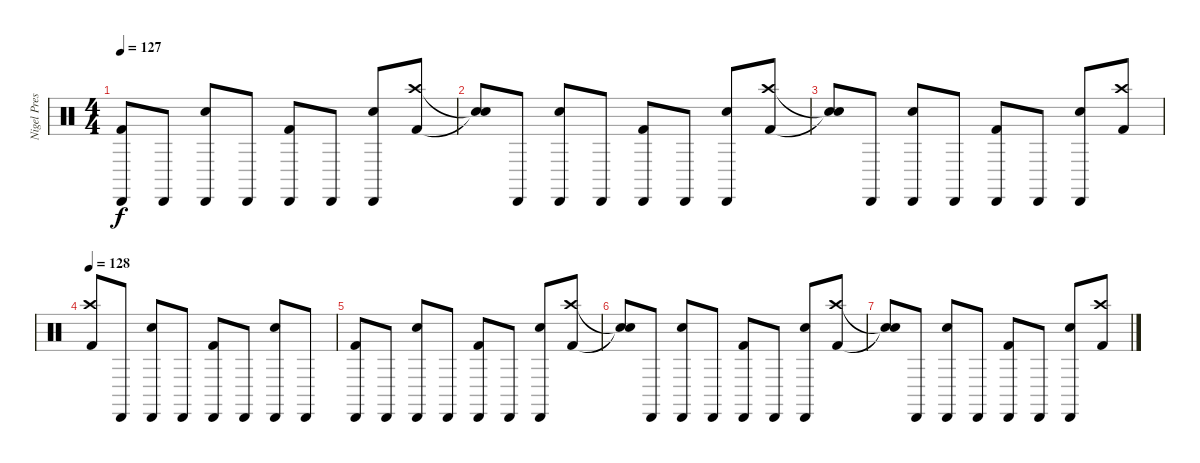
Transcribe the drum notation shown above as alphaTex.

\track ("Nigel Preston" "Nigel Pres") {instrument percussion}
\staff {score}
\articulation defaults
\ts (4 4)
\tempo 127
\clef neutral
\ks c
("Kick (hit) 2" "Cabasa (hit)").8{dy f} "Cabasa (hit)".8 ("Snare (hit) 2" "Cabasa (hit)").8 "Cabasa (hit)".8 ("Kick (hit) 2" "Cabasa (hit)").8 "Cabasa (hit)".8 ("Snare (hit) 2" "Cabasa (hit)").8 ("Kick (hit) 2" "Crash high (hit)").8 |
("Snare (hit)"{t} "Snare (hit)"{t}).8 "Cabasa (hit)".8 ("Snare (hit) 2" "Cabasa (hit)").8 "Cabasa (hit)".8 ("Kick (hit) 2" "Cabasa (hit)").8 "Cabasa (hit)".8 ("Snare (hit) 2" "Cabasa (hit)").8 ("Kick (hit) 2" "Crash high (hit)").8 |
("Snare (hit)"{t} "Snare (hit)"{t}).8 "Cabasa (hit)".8 ("Snare (hit) 2" "Cabasa (hit)").8 "Cabasa (hit)".8 ("Kick (hit) 2" "Cabasa (hit)").8 "Cabasa (hit)".8 ("Snare (hit) 2" "Cabasa (hit)").8 ("Kick (hit) 2" "Crash high (hit)").8 |
\tempo 128
("Kick (hit) 2" "Crash high (hit)").8 "Cabasa (hit)".8 ("Snare (hit) 2" "Cabasa (hit)").8 "Cabasa (hit)".8 ("Kick (hit) 2" "Cabasa (hit)").8 "Cabasa (hit)".8 ("Snare (hit) 2" "Cabasa (hit)").8 "Cabasa (hit)".8 |
("Kick (hit) 2" "Cabasa (hit)").8 "Cabasa (hit)".8 ("Snare (hit) 2" "Cabasa (hit)").8 "Cabasa (hit)".8 ("Kick (hit) 2" "Cabasa (hit)").8 "Cabasa (hit)".8 ("Snare (hit) 2" "Cabasa (hit)").8 ("Kick (hit) 2" "Crash high (hit)").8 |
("Snare (hit)"{t} "Snare (hit)"{t}).8 "Cabasa (hit)".8 ("Snare (hit) 2" "Cabasa (hit)").8 "Cabasa (hit)".8 ("Kick (hit) 2" "Cabasa (hit)").8 "Cabasa (hit)".8 ("Snare (hit) 2" "Cabasa (hit)").8 ("Kick (hit) 2" "Crash high (hit)").8 |
("Snare (hit)"{t} "Snare (hit)"{t}).8 "Cabasa (hit)".8 ("Snare (hit) 2" "Cabasa (hit)").8 "Cabasa (hit)".8 ("Kick (hit) 2" "Cabasa (hit)").8 "Cabasa (hit)".8 ("Snare (hit) 2" "Cabasa (hit)").8 ("Kick (hit) 2" "Crash high (hit)").8
